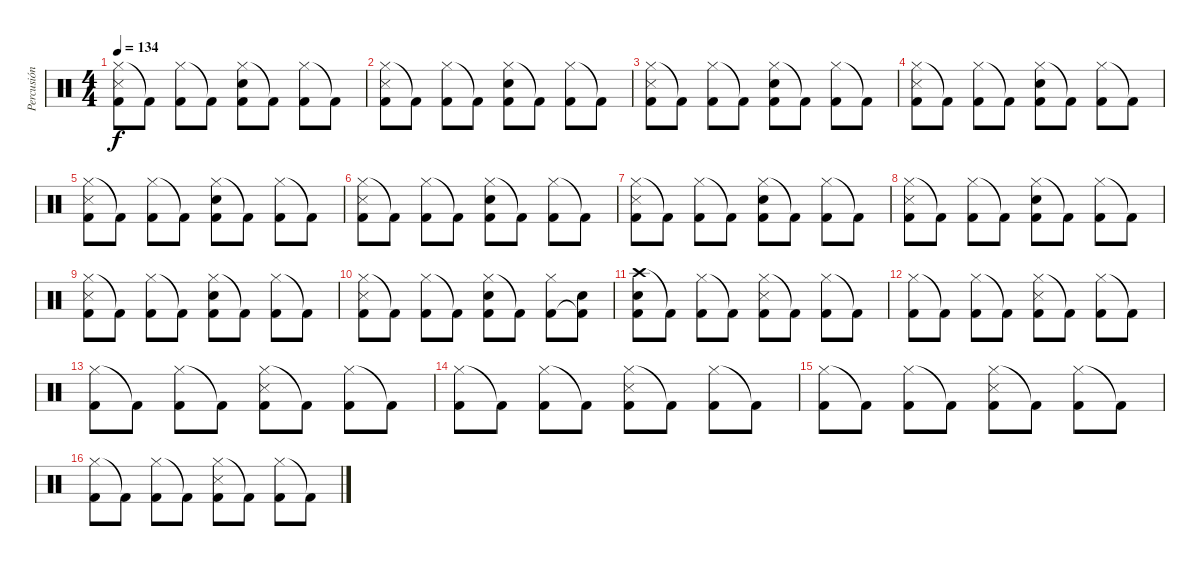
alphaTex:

\track ("Percusión" "Percusión") {instrument percussion}
\staff {score}
\articulation defaults
\ts (4 4)
\tempo 134
\clef neutral
\ks c
("Hi-Hat (closed)" "Snare (side stick) 3" "Kick (hit) 2").8{dy f} "Kick (hit) 2"{t}.8 ("Hi-Hat (closed)" "Kick (hit) 2").8 "Kick (hit) 2"{t}.8 ("Hi-Hat (closed)" "Snare (hit) 2" "Kick (hit) 2").8 "Kick (hit) 2"{t}.8 ("Hi-Hat (closed)" "Kick (hit) 2").8 "Kick (hit) 2"{t}.8 |
("Hi-Hat (closed)" "Snare (side stick) 3" "Kick (hit) 2").8 "Kick (hit) 2"{t}.8 ("Hi-Hat (closed)" "Kick (hit) 2").8 "Kick (hit) 2"{t}.8 ("Hi-Hat (closed)" "Snare (hit) 2" "Kick (hit) 2").8 "Kick (hit) 2"{t}.8 ("Hi-Hat (closed)" "Kick (hit) 2").8 "Kick (hit) 2"{t}.8 |
("Hi-Hat (closed)" "Snare (side stick) 3" "Kick (hit) 2").8 "Kick (hit) 2"{t}.8 ("Hi-Hat (closed)" "Kick (hit) 2").8 "Kick (hit) 2"{t}.8 ("Hi-Hat (closed)" "Snare (hit) 2" "Kick (hit) 2").8 "Kick (hit) 2"{t}.8 ("Hi-Hat (closed)" "Kick (hit) 2").8 "Kick (hit) 2"{t}.8 |
("Hi-Hat (closed)" "Snare (side stick) 3" "Kick (hit) 2").8 "Kick (hit) 2"{t}.8 ("Hi-Hat (closed)" "Kick (hit) 2").8 "Kick (hit) 2"{t}.8 ("Hi-Hat (closed)" "Snare (hit) 2" "Kick (hit) 2").8 "Kick (hit) 2"{t}.8 ("Hi-Hat (closed)" "Kick (hit) 2").8 "Kick (hit) 2"{t}.8 |
("Hi-Hat (closed)" "Snare (side stick) 3" "Kick (hit) 2").8 "Kick (hit) 2"{t}.8 ("Hi-Hat (closed)" "Kick (hit) 2").8 "Kick (hit) 2"{t}.8 ("Hi-Hat (closed)" "Snare (hit) 2" "Kick (hit) 2").8 "Kick (hit) 2"{t}.8 ("Hi-Hat (closed)" "Kick (hit) 2").8 "Kick (hit) 2"{t}.8 |
("Hi-Hat (closed)" "Snare (side stick) 3" "Kick (hit) 2").8 "Kick (hit) 2"{t}.8 ("Hi-Hat (closed)" "Kick (hit) 2").8 "Kick (hit) 2"{t}.8 ("Hi-Hat (closed)" "Snare (hit) 2" "Kick (hit) 2").8 "Kick (hit) 2"{t}.8 ("Hi-Hat (closed)" "Kick (hit) 2").8 "Kick (hit) 2"{t}.8 |
("Hi-Hat (closed)" "Snare (side stick) 3" "Kick (hit) 2").8 "Kick (hit) 2"{t}.8 ("Hi-Hat (closed)" "Kick (hit) 2").8 "Kick (hit) 2"{t}.8 ("Hi-Hat (closed)" "Snare (hit) 2" "Kick (hit) 2").8 "Kick (hit) 2"{t}.8 ("Hi-Hat (closed)" "Kick (hit) 2").8 "Kick (hit) 2"{t}.8 |
("Hi-Hat (closed)" "Snare (side stick) 3" "Kick (hit) 2").8 "Kick (hit) 2"{t}.8 ("Hi-Hat (closed)" "Kick (hit) 2").8 "Kick (hit) 2"{t}.8 ("Hi-Hat (closed)" "Snare (hit) 2" "Kick (hit) 2").8 "Kick (hit) 2"{t}.8 ("Hi-Hat (closed)" "Kick (hit) 2").8 "Kick (hit) 2"{t}.8 |
("Hi-Hat (closed)" "Snare (side stick) 3" "Kick (hit) 2").8 "Kick (hit) 2"{t}.8 ("Hi-Hat (closed)" "Kick (hit) 2").8 "Kick (hit) 2"{t}.8 ("Hi-Hat (closed)" "Snare (hit) 2" "Kick (hit) 2").8 "Kick (hit) 2"{t}.8 ("Hi-Hat (closed)" "Kick (hit) 2").8 "Kick (hit) 2"{t}.8 |
("Hi-Hat (closed)" "Snare (side stick) 3" "Kick (hit) 2").8 "Kick (hit) 2"{t}.8 ("Hi-Hat (closed)" "Kick (hit) 2").8 "Kick (hit) 2"{t}.8 ("Hi-Hat (closed)" "Snare (hit) 2" "Kick (hit) 2").8 "Kick (hit) 2"{t}.8 ("Hi-Hat (closed)" "Kick (hit) 2").8 ("Electric Snare (hit)" "Kick (hit) 2"{t}).8 |
("Crash high (hit)" "Snare (hit) 2" "Kick (hit) 2").8 "Kick (hit) 2"{t}.8 ("Hi-Hat (closed)" "Kick (hit) 2").8 "Kick (hit) 2"{t}.8 ("Hi-Hat (closed)" "Snare (side stick) 3" "Kick (hit) 2").8 "Kick (hit) 2"{t}.8 ("Hi-Hat (closed)" "Kick (hit) 2").8 "Kick (hit) 2"{t}.8 |
("Hi-Hat (closed)" "Kick (hit) 2").8 "Kick (hit) 2"{t}.8 ("Hi-Hat (closed)" "Kick (hit) 2").8 "Kick (hit) 2"{t}.8 ("Hi-Hat (closed)" "Snare (side stick) 3" "Kick (hit) 2").8 "Kick (hit) 2"{t}.8 ("Hi-Hat (closed)" "Kick (hit) 2").8 "Kick (hit) 2"{t}.8 |
("Hi-Hat (closed)" "Kick (hit) 2").8 "Kick (hit) 2"{t}.8 ("Hi-Hat (closed)" "Kick (hit) 2").8 "Kick (hit) 2"{t}.8 ("Hi-Hat (closed)" "Snare (side stick) 3" "Kick (hit) 2").8 "Kick (hit) 2"{t}.8 ("Hi-Hat (closed)" "Kick (hit) 2").8 "Kick (hit) 2"{t}.8 |
("Hi-Hat (closed)" "Kick (hit) 2").8 "Kick (hit) 2"{t}.8 ("Hi-Hat (closed)" "Kick (hit) 2").8 "Kick (hit) 2"{t}.8 ("Hi-Hat (closed)" "Snare (side stick) 3" "Kick (hit) 2").8 "Kick (hit) 2"{t}.8 ("Hi-Hat (closed)" "Kick (hit) 2").8 "Kick (hit) 2"{t}.8 |
("Hi-Hat (closed)" "Kick (hit) 2").8 "Kick (hit) 2"{t}.8 ("Hi-Hat (closed)" "Kick (hit) 2").8 "Kick (hit) 2"{t}.8 ("Hi-Hat (closed)" "Snare (side stick) 3" "Kick (hit) 2").8 "Kick (hit) 2"{t}.8 ("Hi-Hat (closed)" "Kick (hit) 2").8 "Kick (hit) 2"{t}.8 |
("Hi-Hat (closed)" "Kick (hit) 2").8 "Kick (hit) 2"{t}.8 ("Hi-Hat (closed)" "Kick (hit) 2").8 "Kick (hit) 2"{t}.8 ("Hi-Hat (closed)" "Snare (side stick) 3" "Kick (hit) 2").8 "Kick (hit) 2"{t}.8 ("Hi-Hat (closed)" "Kick (hit) 2").8 "Kick (hit) 2"{t}.8
